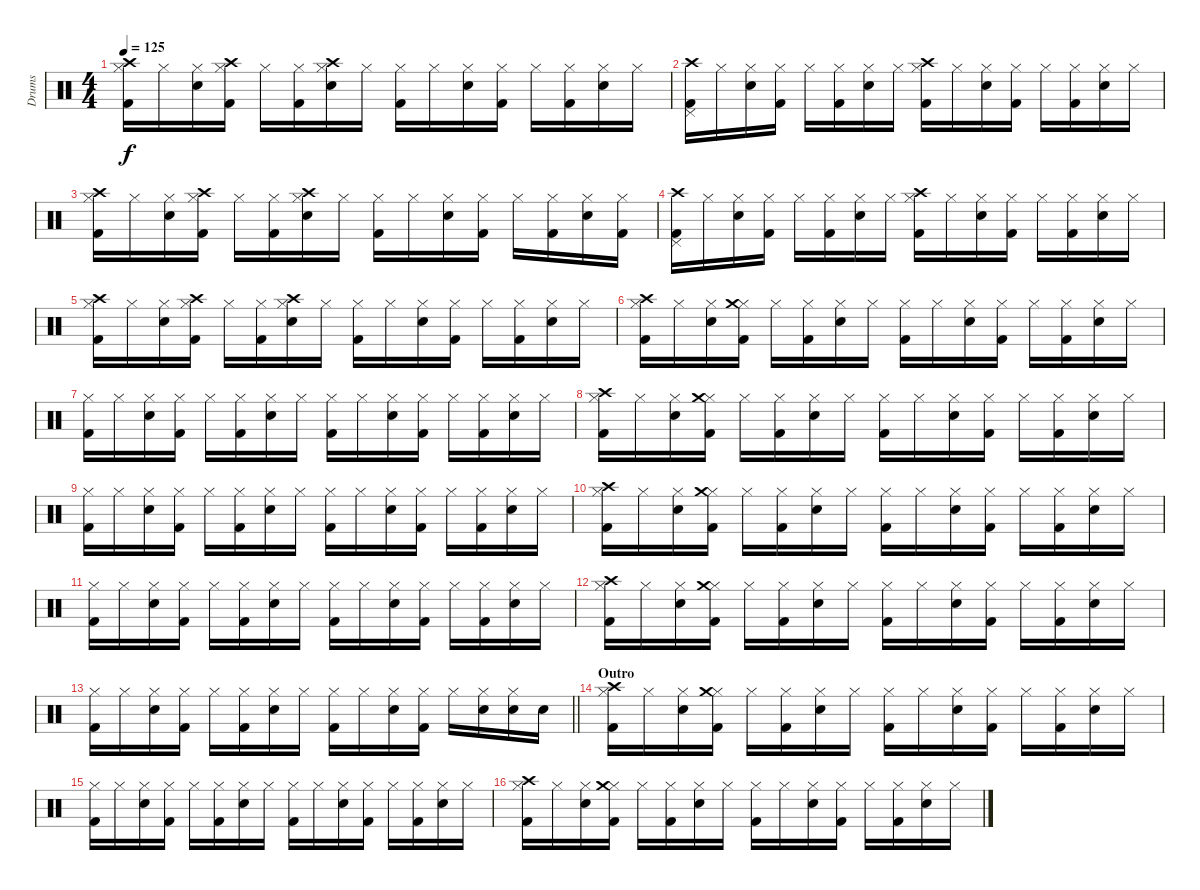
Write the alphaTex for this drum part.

\track ("Drums" "Drums") {instrument percussion}
\staff {score}
\articulation defaults
\ts (4 4)
\tempo 125
\clef neutral
\ks c
("Kick (hit) 2" "Hi-Hat (closed)" "Crash high (hit)").16{dy f} "Hi-Hat (closed)".16 ("Snare (hit) 2" "Hi-Hat (closed)").16 ("Kick (hit) 2" "Hi-Hat (closed)" "Crash high (hit)").16 "Hi-Hat (closed)".16 ("Kick (hit) 2" "Hi-Hat (closed)").16 ("Snare (hit) 2" "Hi-Hat (closed)" "Crash high (hit)").16 "Hi-Hat (closed)".16 ("Kick (hit) 2" "Hi-Hat (closed)").16 "Hi-Hat (closed)".16 ("Snare (hit) 2" "Hi-Hat (closed)").16 ("Kick (hit) 2" "Hi-Hat (closed)").16 "Hi-Hat (closed)".16 ("Kick (hit) 2" "Hi-Hat (closed)").16 ("Snare (hit) 2" "Hi-Hat (closed)").16 "Hi-Hat (closed)".16 |
("Kick (hit) 2" "Pedal Hi-Hat (hit)" "Crash high (hit)").16 "Hi-Hat (closed)".16 ("Snare (hit) 2" "Hi-Hat (closed)").16 ("Kick (hit) 2" "Hi-Hat (closed)").16 "Hi-Hat (closed)".16 ("Kick (hit) 2" "Hi-Hat (closed)").16 ("Snare (hit) 2" "Hi-Hat (closed)").16 "Hi-Hat (closed)".16 ("Kick (hit) 2" "Hi-Hat (closed)" "Crash high (hit)").16 "Hi-Hat (closed)".16 ("Snare (hit) 2" "Hi-Hat (closed)").16 ("Kick (hit) 2" "Hi-Hat (closed)").16 "Hi-Hat (closed)".16 ("Kick (hit) 2" "Hi-Hat (closed)").16 ("Snare (hit) 2" "Hi-Hat (closed)").16 "Hi-Hat (closed)".16 |
("Kick (hit) 2" "Hi-Hat (closed)" "Crash high (hit)").16 "Hi-Hat (closed)".16 ("Snare (hit) 2" "Hi-Hat (closed)").16 ("Kick (hit) 2" "Hi-Hat (closed)" "Crash high (hit)").16 "Hi-Hat (closed)".16 ("Kick (hit) 2" "Hi-Hat (closed)").16 ("Snare (hit) 2" "Hi-Hat (closed)" "Crash high (hit)").16 "Hi-Hat (closed)".16 ("Kick (hit) 2" "Hi-Hat (closed)").16 "Hi-Hat (closed)".16 ("Snare (hit) 2" "Hi-Hat (closed)").16 ("Kick (hit) 2" "Hi-Hat (closed)").16 "Hi-Hat (closed)".16 ("Kick (hit) 2" "Hi-Hat (closed)").16 ("Snare (hit) 2" "Hi-Hat (closed)").16 ("Kick (hit) 2" "Hi-Hat (closed)").16 |
("Kick (hit) 2" "Pedal Hi-Hat (hit)" "Crash high (hit)").16 "Hi-Hat (closed)".16 ("Snare (hit) 2" "Hi-Hat (closed)").16 ("Kick (hit) 2" "Hi-Hat (closed)").16 "Hi-Hat (closed)".16 ("Kick (hit) 2" "Hi-Hat (closed)").16 ("Snare (hit) 2" "Hi-Hat (closed)").16 "Hi-Hat (closed)".16 ("Kick (hit) 2" "Hi-Hat (closed)" "Crash high (hit)").16 "Hi-Hat (closed)".16 ("Snare (hit) 2" "Hi-Hat (closed)").16 ("Kick (hit) 2" "Hi-Hat (closed)").16 "Hi-Hat (closed)".16 ("Kick (hit) 2" "Hi-Hat (closed)").16 ("Snare (hit) 2" "Hi-Hat (closed)").16 "Hi-Hat (closed)".16 |
("Kick (hit) 2" "Hi-Hat (closed)" "Crash high (hit)").16 "Hi-Hat (closed)".16 ("Snare (hit) 2" "Hi-Hat (closed)").16 ("Kick (hit) 2" "Hi-Hat (closed)" "Crash high (hit)").16 "Hi-Hat (closed)".16 ("Kick (hit) 2" "Hi-Hat (closed)").16 ("Snare (hit) 2" "Hi-Hat (closed)" "Crash high (hit)").16 "Hi-Hat (closed)".16 ("Kick (hit) 2" "Hi-Hat (closed)").16 "Hi-Hat (closed)".16 ("Snare (hit) 2" "Hi-Hat (closed)").16 ("Kick (hit) 2" "Hi-Hat (closed)").16 "Hi-Hat (closed)".16 ("Kick (hit) 2" "Hi-Hat (closed)").16 ("Snare (hit) 2" "Hi-Hat (closed)").16 "Hi-Hat (closed)".16 |
("Kick (hit) 2" "Hi-Hat (closed)" "Crash high (hit)").16 "Hi-Hat (closed)".16 ("Snare (hit) 2" "Hi-Hat (closed)").16 ("Kick (hit) 2" "Hi-Hat (closed)" "Crash medium (hit)").16 "Hi-Hat (closed)".16 ("Kick (hit) 2" "Hi-Hat (closed)").16 ("Snare (hit) 2" "Hi-Hat (closed)").16 "Hi-Hat (closed)".16 ("Kick (hit) 2" "Hi-Hat (closed)").16 "Hi-Hat (closed)".16 ("Snare (hit) 2" "Hi-Hat (closed)").16 ("Kick (hit) 2" "Hi-Hat (closed)").16 "Hi-Hat (closed)".16 ("Kick (hit) 2" "Hi-Hat (closed)").16 ("Snare (hit) 2" "Hi-Hat (closed)").16 "Hi-Hat (closed)".16 |
("Kick (hit) 2" "Hi-Hat (closed)").16 "Hi-Hat (closed)".16 ("Snare (hit) 2" "Hi-Hat (closed)").16 ("Kick (hit) 2" "Hi-Hat (closed)").16 "Hi-Hat (closed)".16 ("Kick (hit) 2" "Hi-Hat (closed)").16 ("Snare (hit) 2" "Hi-Hat (closed)").16 "Hi-Hat (closed)".16 ("Kick (hit) 2" "Hi-Hat (closed)").16 "Hi-Hat (closed)".16 ("Snare (hit) 2" "Hi-Hat (closed)").16 ("Kick (hit) 2" "Hi-Hat (closed)").16 "Hi-Hat (closed)".16 ("Kick (hit) 2" "Hi-Hat (closed)").16 ("Snare (hit) 2" "Hi-Hat (closed)").16 "Hi-Hat (closed)".16 |
("Kick (hit) 2" "Hi-Hat (closed)" "Crash high (hit)").16 "Hi-Hat (closed)".16 ("Snare (hit) 2" "Hi-Hat (closed)").16 ("Kick (hit) 2" "Hi-Hat (closed)" "Crash medium (hit)").16 "Hi-Hat (closed)".16 ("Kick (hit) 2" "Hi-Hat (closed)").16 ("Snare (hit) 2" "Hi-Hat (closed)").16 "Hi-Hat (closed)".16 ("Kick (hit) 2" "Hi-Hat (closed)").16 "Hi-Hat (closed)".16 ("Snare (hit) 2" "Hi-Hat (closed)").16 ("Kick (hit) 2" "Hi-Hat (closed)").16 "Hi-Hat (closed)".16 ("Kick (hit) 2" "Hi-Hat (closed)").16 ("Snare (hit) 2" "Hi-Hat (closed)").16 "Hi-Hat (closed)".16 |
("Kick (hit) 2" "Hi-Hat (closed)").16 "Hi-Hat (closed)".16 ("Snare (hit) 2" "Hi-Hat (closed)").16 ("Kick (hit) 2" "Hi-Hat (closed)").16 "Hi-Hat (closed)".16 ("Kick (hit) 2" "Hi-Hat (closed)").16 ("Snare (hit) 2" "Hi-Hat (closed)").16 "Hi-Hat (closed)".16 ("Kick (hit) 2" "Hi-Hat (closed)").16 "Hi-Hat (closed)".16 ("Snare (hit) 2" "Hi-Hat (closed)").16 ("Kick (hit) 2" "Hi-Hat (closed)").16 "Hi-Hat (closed)".16 ("Kick (hit) 2" "Hi-Hat (closed)").16 ("Snare (hit) 2" "Hi-Hat (closed)").16 "Hi-Hat (closed)".16 |
("Kick (hit) 2" "Hi-Hat (closed)" "Crash high (hit)").16 "Hi-Hat (closed)".16 ("Snare (hit) 2" "Hi-Hat (closed)").16 ("Kick (hit) 2" "Hi-Hat (closed)" "Crash medium (hit)").16 "Hi-Hat (closed)".16 ("Kick (hit) 2" "Hi-Hat (closed)").16 ("Snare (hit) 2" "Hi-Hat (closed)").16 "Hi-Hat (closed)".16 ("Kick (hit) 2" "Hi-Hat (closed)").16 "Hi-Hat (closed)".16 ("Snare (hit) 2" "Hi-Hat (closed)").16 ("Kick (hit) 2" "Hi-Hat (closed)").16 "Hi-Hat (closed)".16 ("Kick (hit) 2" "Hi-Hat (closed)").16 ("Snare (hit) 2" "Hi-Hat (closed)").16 "Hi-Hat (closed)".16 |
("Kick (hit) 2" "Hi-Hat (closed)").16 "Hi-Hat (closed)".16 ("Snare (hit) 2" "Hi-Hat (closed)").16 ("Kick (hit) 2" "Hi-Hat (closed)").16 "Hi-Hat (closed)".16 ("Kick (hit) 2" "Hi-Hat (closed)").16 ("Snare (hit) 2" "Hi-Hat (closed)").16 "Hi-Hat (closed)".16 ("Kick (hit) 2" "Hi-Hat (closed)").16 "Hi-Hat (closed)".16 ("Snare (hit) 2" "Hi-Hat (closed)").16 ("Kick (hit) 2" "Hi-Hat (closed)").16 "Hi-Hat (closed)".16 ("Kick (hit) 2" "Hi-Hat (closed)").16 ("Snare (hit) 2" "Hi-Hat (closed)").16 "Hi-Hat (closed)".16 |
("Kick (hit) 2" "Hi-Hat (closed)" "Crash high (hit)").16 "Hi-Hat (closed)".16 ("Snare (hit) 2" "Hi-Hat (closed)").16 ("Kick (hit) 2" "Hi-Hat (closed)" "Crash medium (hit)").16 "Hi-Hat (closed)".16 ("Kick (hit) 2" "Hi-Hat (closed)").16 ("Snare (hit) 2" "Hi-Hat (closed)").16 "Hi-Hat (closed)".16 ("Kick (hit) 2" "Hi-Hat (closed)").16 "Hi-Hat (closed)".16 ("Snare (hit) 2" "Hi-Hat (closed)").16 ("Kick (hit) 2" "Hi-Hat (closed)").16 "Hi-Hat (closed)".16 ("Kick (hit) 2" "Hi-Hat (closed)").16 ("Snare (hit) 2" "Hi-Hat (closed)").16 "Hi-Hat (closed)".16 |
\barLineRight lightlight
("Kick (hit) 2" "Hi-Hat (closed)").16 "Hi-Hat (closed)".16 ("Snare (hit) 2" "Hi-Hat (closed)").16 ("Kick (hit) 2" "Hi-Hat (closed)").16 "Hi-Hat (closed)".16 ("Kick (hit) 2" "Hi-Hat (closed)").16 ("Snare (hit) 2" "Hi-Hat (closed)").16 "Hi-Hat (closed)".16 ("Kick (hit) 2" "Hi-Hat (closed)").16 "Hi-Hat (closed)".16 ("Snare (hit) 2" "Hi-Hat (closed)").16 ("Kick (hit) 2" "Hi-Hat (closed)").16 "Hi-Hat (closed)".16 ("Snare (hit) 2" "Hi-Hat (closed)").16 ("Snare (hit) 2" "Hi-Hat (closed)").16 "Snare (hit) 2".16 |
\section ("" "Outro")
("Kick (hit) 2" "Hi-Hat (closed)" "Crash high (hit)").16 "Hi-Hat (closed)".16 ("Snare (hit) 2" "Hi-Hat (closed)").16 ("Kick (hit) 2" "Hi-Hat (closed)" "Crash medium (hit)").16 "Hi-Hat (closed)".16 ("Kick (hit) 2" "Hi-Hat (closed)").16 ("Snare (hit) 2" "Hi-Hat (closed)").16 "Hi-Hat (closed)".16 ("Kick (hit) 2" "Hi-Hat (closed)").16 "Hi-Hat (closed)".16 ("Snare (hit) 2" "Hi-Hat (closed)").16 ("Kick (hit) 2" "Hi-Hat (closed)").16 "Hi-Hat (closed)".16 ("Kick (hit) 2" "Hi-Hat (closed)").16 ("Snare (hit) 2" "Hi-Hat (closed)").16 "Hi-Hat (closed)".16 |
("Kick (hit) 2" "Hi-Hat (closed)").16 "Hi-Hat (closed)".16 ("Snare (hit) 2" "Hi-Hat (closed)").16 ("Kick (hit) 2" "Hi-Hat (closed)").16 "Hi-Hat (closed)".16 ("Kick (hit) 2" "Hi-Hat (closed)").16 ("Snare (hit) 2" "Hi-Hat (closed)").16 "Hi-Hat (closed)".16 ("Kick (hit) 2" "Hi-Hat (closed)").16 "Hi-Hat (closed)".16 ("Snare (hit) 2" "Hi-Hat (closed)").16 ("Kick (hit) 2" "Hi-Hat (closed)").16 "Hi-Hat (closed)".16 ("Kick (hit) 2" "Hi-Hat (closed)").16 ("Snare (hit) 2" "Hi-Hat (closed)").16 "Hi-Hat (closed)".16 |
("Kick (hit) 2" "Hi-Hat (closed)" "Crash high (hit)").16 "Hi-Hat (closed)".16 ("Snare (hit) 2" "Hi-Hat (closed)").16 ("Kick (hit) 2" "Hi-Hat (closed)" "Crash medium (hit)").16 "Hi-Hat (closed)".16 ("Kick (hit) 2" "Hi-Hat (closed)").16 ("Snare (hit) 2" "Hi-Hat (closed)").16 "Hi-Hat (closed)".16 ("Kick (hit) 2" "Hi-Hat (closed)").16 "Hi-Hat (closed)".16 ("Snare (hit) 2" "Hi-Hat (closed)").16 ("Kick (hit) 2" "Hi-Hat (closed)").16 "Hi-Hat (closed)".16 ("Kick (hit) 2" "Hi-Hat (closed)").16 ("Snare (hit) 2" "Hi-Hat (closed)").16 "Hi-Hat (closed)".16
